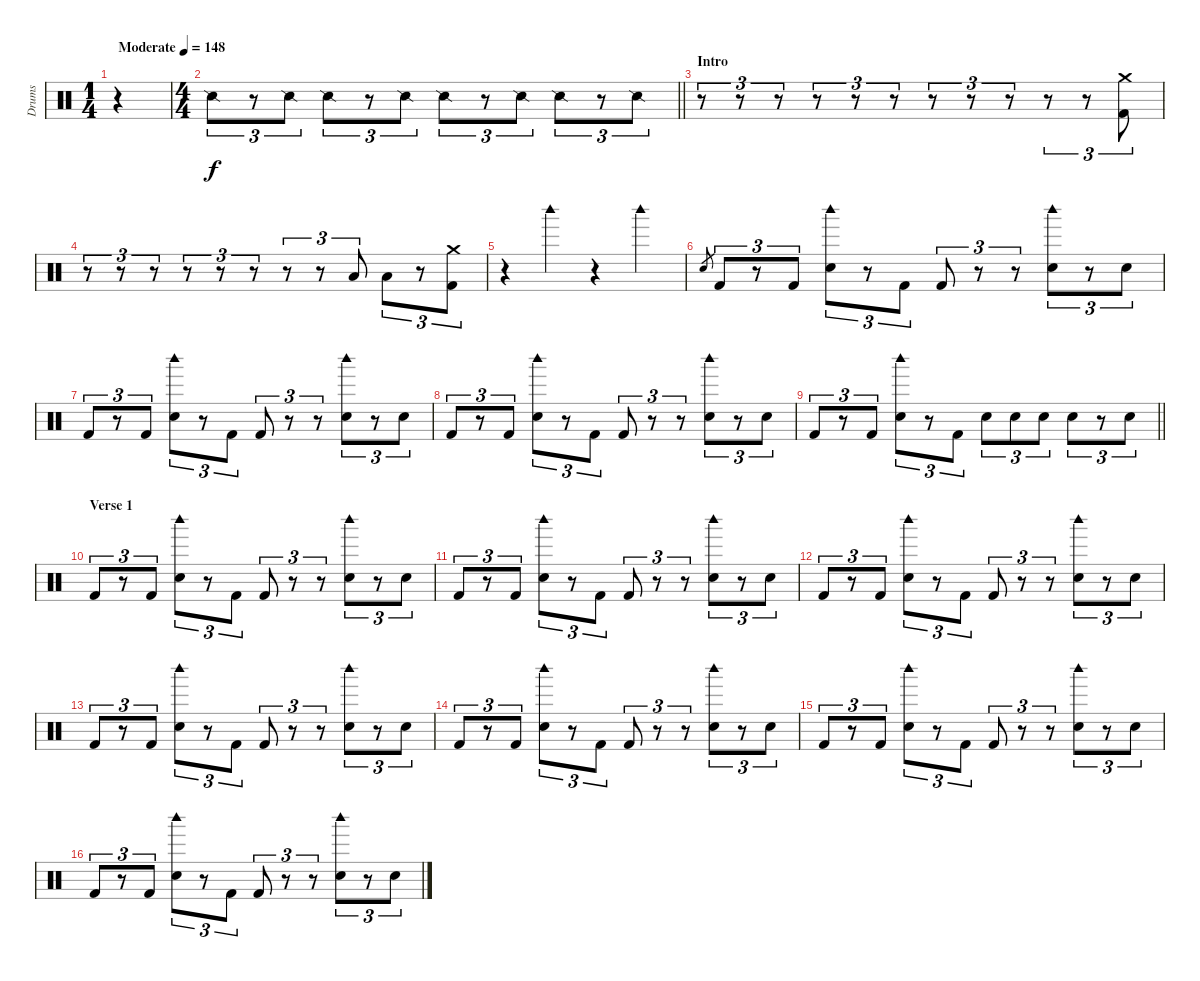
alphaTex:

\track ("Drums" "Drums") {instrument percussion}
\staff {score}
\articulation defaults
\ts (1 4)
\tempo (148 "Moderate")
\clef neutral
\ks c
r.4{dy f} |
\ts (4 4)
\barLineRight lightlight "Snare (side stick) 2".8{tu (3 2)}
r.8{tu (3 2)} "Snare (side stick) 2".8{tu (3 2)} "Snare (side stick) 2".8{tu (3 2)} r.8{tu (3 2)} "Snare (side stick) 2".8{tu (3 2)} "Snare (side stick) 2".8{tu (3 2)} r.8{tu (3 2)} "Snare (side stick) 2".8{tu (3 2)} "Snare (side stick) 2".8{tu (3 2)} r.8{tu (3 2)} "Snare (side stick) 2".8{tu (3 2)} |
\section ("" "Intro")
r.8{tu (3 2)} r.8{tu (3 2)} r.8{tu (3 2)} r.8{tu (3 2)} r.8{tu (3 2)} r.8{tu (3 2)} r.8{tu (3 2)} r.8{tu (3 2)} r.8{tu (3 2)} r.8{tu (3 2)} r.8{tu (3 2)} ("Crash medium (hit)" "Kick (hit) 2").8{tu (3 2)} |
r.8{tu (3 2)} r.8{tu (3 2)} r.8{tu (3 2)} r.8{tu (3 2)} r.8{tu (3 2)} r.8{tu (3 2)} r.8{tu (3 2)} r.8{tu (3 2)} "Low Tom (hit)".8{tu (3 2)} "Low Tom (hit)".8{tu (3 2)} r.8{tu (3 2)} ("Crash medium (hit)" "Kick (hit) 2").8{tu (3 2)} |
r.4 "Woodblock high (hit)".4 r.4 "Woodblock high (hit)".4 |
"Snare (hit) 2".8{gr} "Kick (hit) 2".8{tu (3 2)} r.8{tu (3 2)} "Kick (hit) 2".8{tu (3 2)} ("Woodblock high (hit)" "Snare (hit) 2").8{tu (3 2)} r.8{tu (3 2)} "Kick (hit) 2".8{tu (3 2)} "Kick (hit) 2".8{tu (3 2)} r.8{tu (3 2)} r.8{tu (3 2)} ("Woodblock high (hit)" "Snare (hit) 2").8{tu (3 2)} r.8{tu (3 2)} "Snare (hit) 2".8{tu (3 2)} |
"Kick (hit) 2".8{tu (3 2)} r.8{tu (3 2)} "Kick (hit) 2".8{tu (3 2)} ("Woodblock high (hit)" "Snare (hit) 2").8{tu (3 2)} r.8{tu (3 2)} "Kick (hit) 2".8{tu (3 2)} "Kick (hit) 2".8{tu (3 2)} r.8{tu (3 2)} r.8{tu (3 2)} ("Woodblock high (hit)" "Snare (hit) 2").8{tu (3 2)} r.8{tu (3 2)} "Snare (hit) 2".8{tu (3 2)} |
"Kick (hit) 2".8{tu (3 2)} r.8{tu (3 2)} "Kick (hit) 2".8{tu (3 2)} ("Woodblock high (hit)" "Snare (hit) 2").8{tu (3 2)} r.8{tu (3 2)} "Kick (hit) 2".8{tu (3 2)} "Kick (hit) 2".8{tu (3 2)} r.8{tu (3 2)} r.8{tu (3 2)} ("Woodblock high (hit)" "Snare (hit) 2").8{tu (3 2)} r.8{tu (3 2)} "Snare (hit) 2".8{tu (3 2)} |
\barLineRight lightlight "Kick (hit) 2".8{tu (3 2)}
r.8{tu (3 2)} "Kick (hit) 2".8{tu (3 2)} ("Woodblock high (hit)" "Snare (hit) 2").8{tu (3 2)} r.8{tu (3 2)} "Kick (hit) 2".8{tu (3 2)} "Snare (hit) 2".8{tu (3 2)} "Snare (hit) 2".8{tu (3 2)} "Snare (hit) 2".8{tu (3 2)} "Snare (hit) 2".8{tu (3 2)} r.8{tu (3 2)} "Snare (hit) 2".8{tu (3 2)} |
\section ("" "Verse 1")
"Kick (hit) 2".8{tu (3 2)} r.8{tu (3 2)} "Kick (hit) 2".8{tu (3 2)} ("Woodblock high (hit)" "Snare (hit) 2").8{tu (3 2)} r.8{tu (3 2)} "Kick (hit) 2".8{tu (3 2)} "Kick (hit) 2".8{tu (3 2)} r.8{tu (3 2)} r.8{tu (3 2)} ("Woodblock high (hit)" "Snare (hit) 2").8{tu (3 2)} r.8{tu (3 2)} "Snare (hit) 2".8{tu (3 2)} |
"Kick (hit) 2".8{tu (3 2)} r.8{tu (3 2)} "Kick (hit) 2".8{tu (3 2)} ("Woodblock high (hit)" "Snare (hit) 2").8{tu (3 2)} r.8{tu (3 2)} "Kick (hit) 2".8{tu (3 2)} "Kick (hit) 2".8{tu (3 2)} r.8{tu (3 2)} r.8{tu (3 2)} ("Woodblock high (hit)" "Snare (hit) 2").8{tu (3 2)} r.8{tu (3 2)} "Snare (hit) 2".8{tu (3 2)} |
"Kick (hit) 2".8{tu (3 2)} r.8{tu (3 2)} "Kick (hit) 2".8{tu (3 2)} ("Woodblock high (hit)" "Snare (hit) 2").8{tu (3 2)} r.8{tu (3 2)} "Kick (hit) 2".8{tu (3 2)} "Kick (hit) 2".8{tu (3 2)} r.8{tu (3 2)} r.8{tu (3 2)} ("Woodblock high (hit)" "Snare (hit) 2").8{tu (3 2)} r.8{tu (3 2)} "Snare (hit) 2".8{tu (3 2)} |
"Kick (hit) 2".8{tu (3 2)} r.8{tu (3 2)} "Kick (hit) 2".8{tu (3 2)} ("Woodblock high (hit)" "Snare (hit) 2").8{tu (3 2)} r.8{tu (3 2)} "Kick (hit) 2".8{tu (3 2)} "Kick (hit) 2".8{tu (3 2)} r.8{tu (3 2)} r.8{tu (3 2)} ("Woodblock high (hit)" "Snare (hit) 2").8{tu (3 2)} r.8{tu (3 2)} "Snare (hit) 2".8{tu (3 2)} |
"Kick (hit) 2".8{tu (3 2)} r.8{tu (3 2)} "Kick (hit) 2".8{tu (3 2)} ("Woodblock high (hit)" "Snare (hit) 2").8{tu (3 2)} r.8{tu (3 2)} "Kick (hit) 2".8{tu (3 2)} "Kick (hit) 2".8{tu (3 2)} r.8{tu (3 2)} r.8{tu (3 2)} ("Woodblock high (hit)" "Snare (hit) 2").8{tu (3 2)} r.8{tu (3 2)} "Snare (hit) 2".8{tu (3 2)} |
"Kick (hit) 2".8{tu (3 2)} r.8{tu (3 2)} "Kick (hit) 2".8{tu (3 2)} ("Woodblock high (hit)" "Snare (hit) 2").8{tu (3 2)} r.8{tu (3 2)} "Kick (hit) 2".8{tu (3 2)} "Kick (hit) 2".8{tu (3 2)} r.8{tu (3 2)} r.8{tu (3 2)} ("Woodblock high (hit)" "Snare (hit) 2").8{tu (3 2)} r.8{tu (3 2)} "Snare (hit) 2".8{tu (3 2)} |
"Kick (hit) 2".8{tu (3 2)} r.8{tu (3 2)} "Kick (hit) 2".8{tu (3 2)} ("Woodblock high (hit)" "Snare (hit) 2").8{tu (3 2)} r.8{tu (3 2)} "Kick (hit) 2".8{tu (3 2)} "Kick (hit) 2".8{tu (3 2)} r.8{tu (3 2)} r.8{tu (3 2)} ("Woodblock high (hit)" "Snare (hit) 2").8{tu (3 2)} r.8{tu (3 2)} "Snare (hit) 2".8{tu (3 2)}
